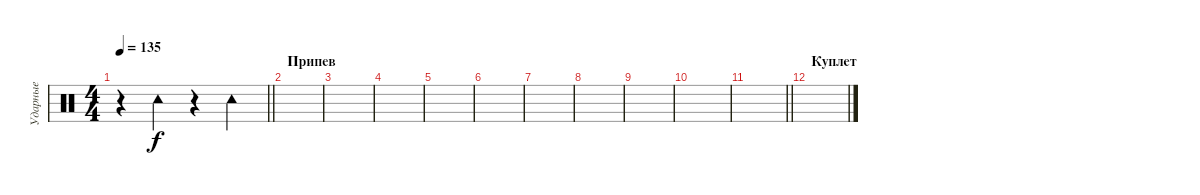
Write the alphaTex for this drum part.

\track ("Ударные" "Ударные") {instrument percussion}
\staff {score}
\articulation defaults
\ts (4 4)
\tempo 135
\clef neutral
\barLineRight lightlight
\ks c
r.4{dy f} "Tambourine (hit)".4 r.4 "Tambourine (hit)".4 |
\section ("" "Припев")
|
|
|
|
|
|
|
|
|
\barLineRight lightlight
|
\section ("" "Куплет")
